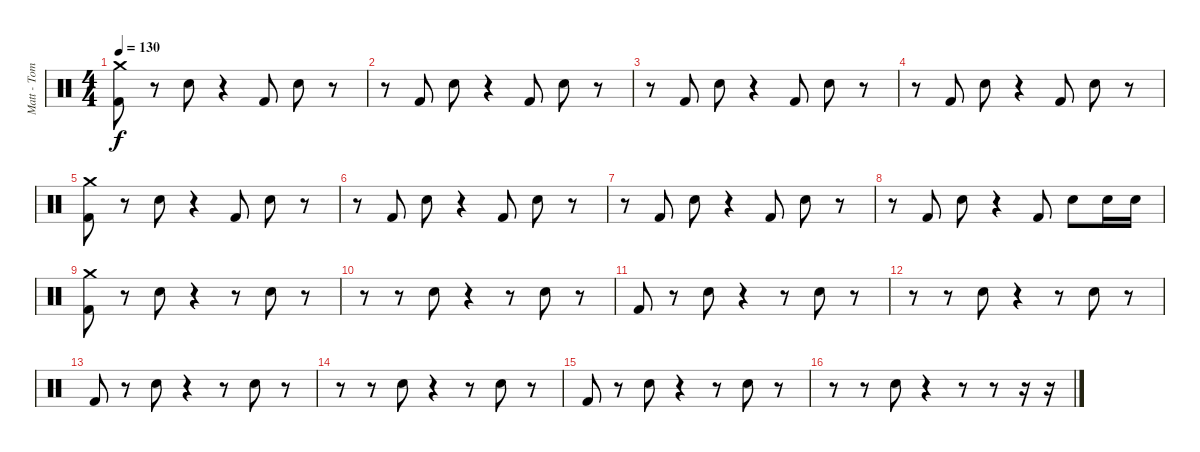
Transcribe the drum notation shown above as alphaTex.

\track ("Matt - Tom" "Matt - Tom") {instrument percussion}
\staff {score}
\articulation defaults
\ts (4 4)
\tempo 130
\clef neutral
\ks c
("Crash medium (hit)" "Kick (hit) 2").8{dy f} r.8 "Electric Snare (hit)".8 r.4 "Kick (hit) 2".8 "Electric Snare (hit)".8 r.8 |
r.8 "Kick (hit) 2".8 "Electric Snare (hit)".8 r.4 "Kick (hit) 2".8 "Electric Snare (hit)".8 r.8 |
r.8 "Kick (hit) 2".8 "Electric Snare (hit)".8 r.4 "Kick (hit) 2".8 "Electric Snare (hit)".8 r.8 |
r.8 "Kick (hit) 2".8 "Electric Snare (hit)".8 r.4 "Kick (hit) 2".8 "Electric Snare (hit)".8 r.8 |
("Crash medium (hit)" "Kick (hit) 2").8 r.8 "Electric Snare (hit)".8 r.4 "Kick (hit) 2".8 "Electric Snare (hit)".8 r.8 |
r.8 "Kick (hit) 2".8 "Electric Snare (hit)".8 r.4 "Kick (hit) 2".8 "Electric Snare (hit)".8 r.8 |
r.8 "Kick (hit) 2".8 "Electric Snare (hit)".8 r.4 "Kick (hit) 2".8 "Electric Snare (hit)".8 r.8 |
r.8 "Kick (hit) 2".8 "Electric Snare (hit)".8 r.4 "Kick (hit) 2".8 "Electric Snare (hit)".8 "Electric Snare (hit)".16 "Electric Snare (hit)".16 |
("Crash medium (hit)" "Kick (hit) 2").8 r.8 "Electric Snare (hit)".8 r.4 r.8 "Electric Snare (hit)".8 r.8 |
r.8 r.8 "Electric Snare (hit)".8 r.4 r.8 "Electric Snare (hit)".8 r.8 |
"Kick (hit) 2".8 r.8 "Electric Snare (hit)".8 r.4 r.8 "Electric Snare (hit)".8 r.8 |
r.8 r.8 "Electric Snare (hit)".8 r.4 r.8 "Electric Snare (hit)".8 r.8 |
"Kick (hit) 2".8 r.8 "Electric Snare (hit)".8 r.4 r.8 "Electric Snare (hit)".8 r.8 |
r.8 r.8 "Electric Snare (hit)".8 r.4 r.8 "Electric Snare (hit)".8 r.8 |
"Kick (hit) 2".8 r.8 "Electric Snare (hit)".8 r.4 r.8 "Electric Snare (hit)".8 r.8 |
r.8 r.8 "Electric Snare (hit)".8 r.4 r.8 r.8 r.16 r.16
